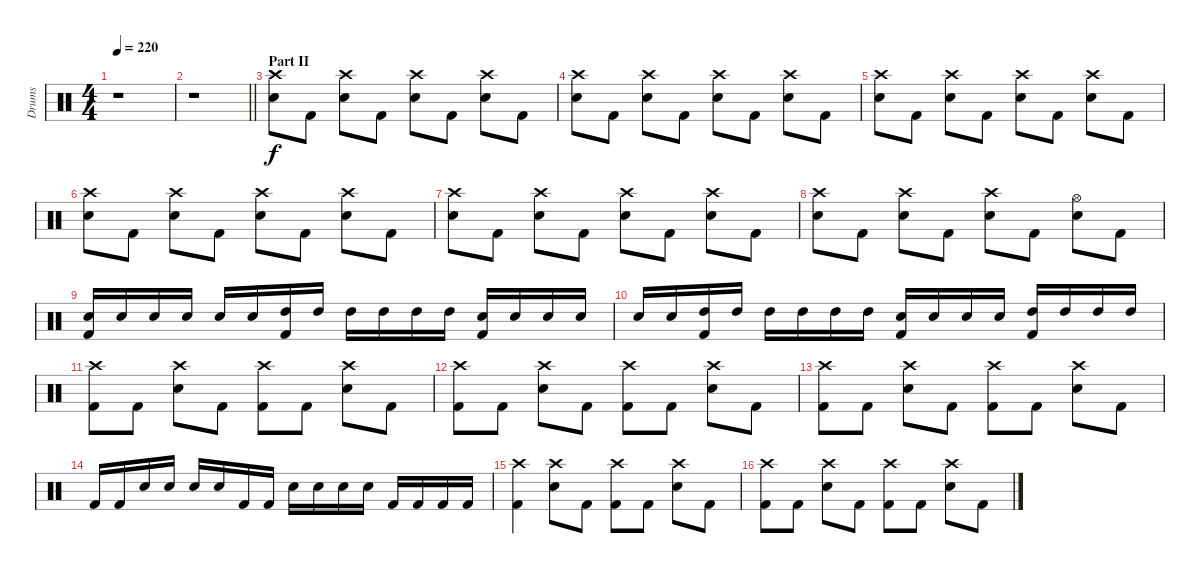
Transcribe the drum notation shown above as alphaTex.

\track ("Drums" "Drums") {instrument percussion}
\staff {score}
\articulation defaults
\ts (4 4)
\tempo 220
\clef neutral
\ks c
r.1{dy f} |
\barLineRight lightlight
r.1 |
\section ("" "Part II")
("Crash high (hit)" "Electric Snare (hit)").8 "Kick (hit) 2".8 ("Crash high (hit)" "Electric Snare (hit)").8 "Kick (hit) 2".8 ("Crash high (hit)" "Electric Snare (hit)").8 "Kick (hit) 2".8 ("Crash high (hit)" "Electric Snare (hit)").8 "Kick (hit) 2".8 |
("Crash high (hit)" "Electric Snare (hit)").8 "Kick (hit) 2".8 ("Crash high (hit)" "Electric Snare (hit)").8 "Kick (hit) 2".8 ("Crash high (hit)" "Electric Snare (hit)").8 "Kick (hit) 2".8 ("Crash high (hit)" "Electric Snare (hit)").8 "Kick (hit) 2".8 |
("Crash high (hit)" "Electric Snare (hit)").8 "Kick (hit) 2".8 ("Crash high (hit)" "Electric Snare (hit)").8 "Kick (hit) 2".8 ("Crash high (hit)" "Electric Snare (hit)").8 "Kick (hit) 2".8 ("Crash high (hit)" "Electric Snare (hit)").8 "Kick (hit) 2".8 |
("Crash high (hit)" "Electric Snare (hit)").8 "Kick (hit) 2".8 ("Crash high (hit)" "Electric Snare (hit)").8 "Kick (hit) 2".8 ("Crash high (hit)" "Electric Snare (hit)").8 "Kick (hit) 2".8 ("Crash high (hit)" "Electric Snare (hit)").8 "Kick (hit) 2".8 |
("Crash high (hit)" "Electric Snare (hit)").8 "Kick (hit) 2".8 ("Crash high (hit)" "Electric Snare (hit)").8 "Kick (hit) 2".8 ("Crash high (hit)" "Electric Snare (hit)").8 "Kick (hit) 2".8 ("Crash high (hit)" "Electric Snare (hit)").8 "Kick (hit) 2".8 |
("Crash high (hit)" "Electric Snare (hit)").8 "Kick (hit) 2".8 ("Crash high (hit)" "Electric Snare (hit)").8 "Kick (hit) 2".8 ("Crash high (hit)" "Electric Snare (hit)").8 "Kick (hit) 2".8 ("Hi-Hat (open)" "Electric Snare (hit)").8 "Kick (hit) 2".8 |
("Electric Snare (hit)" "Kick (hit) 2").16 "Electric Snare (hit)".16 "Electric Snare (hit)".16 "Electric Snare (hit)".16 "Electric Snare (hit)".16 "Electric Snare (hit)".16 ("High Tom (hit)" "Kick (hit) 2").16 "High Tom (hit)".16 "High Tom (hit)".16 "High Tom (hit)".16 "High Tom (hit)".16 "High Tom (hit)".16 ("Electric Snare (hit)" "Kick (hit) 2").16 "Electric Snare (hit)".16 "Electric Snare (hit)".16 "Electric Snare (hit)".16 |
"Electric Snare (hit)".16 "Electric Snare (hit)".16 ("High Tom (hit)" "Kick (hit) 2").16 "High Tom (hit)".16 "High Tom (hit)".16 "High Tom (hit)".16 "High Tom (hit)".16 "High Tom (hit)".16 ("Electric Snare (hit)" "Kick (hit) 2").16 "Electric Snare (hit)".16 "Electric Snare (hit)".16 "Electric Snare (hit)".16 ("High Tom (hit)" "Kick (hit) 2").16 "High Tom (hit)".16 "High Tom (hit)".16 "High Tom (hit)".16 |
("Crash high (hit)" "Kick (hit) 2").8 "Kick (hit) 2".8 ("Crash high (hit)" "Electric Snare (hit)").8 "Kick (hit) 2".8 ("Crash high (hit)" "Kick (hit) 2").8 "Kick (hit) 2".8 ("Crash high (hit)" "Electric Snare (hit)").8 "Kick (hit) 2".8 |
("Crash high (hit)" "Kick (hit) 2").8 "Kick (hit) 2".8 ("Crash high (hit)" "Electric Snare (hit)").8 "Kick (hit) 2".8 ("Crash high (hit)" "Kick (hit) 2").8 "Kick (hit) 2".8 ("Crash high (hit)" "Electric Snare (hit)").8 "Kick (hit) 2".8 |
("Crash high (hit)" "Kick (hit) 2").8 "Kick (hit) 2".8 ("Crash high (hit)" "Electric Snare (hit)").8 "Kick (hit) 2".8 ("Crash high (hit)" "Kick (hit) 2").8 "Kick (hit) 2".8 ("Crash high (hit)" "Electric Snare (hit)").8 "Kick (hit) 2".8 |
"Kick (hit) 2".16 "Kick (hit) 2".16 "Electric Snare (hit)".16 "Electric Snare (hit)".16 "Electric Snare (hit)".16 "Electric Snare (hit)".16 "Kick (hit) 2".16 "Kick (hit) 2".16 "Electric Snare (hit)".16 "Electric Snare (hit)".16 "Electric Snare (hit)".16 "Electric Snare (hit)".16 "Kick (hit) 2".16 "Kick (hit) 2".16 "Kick (hit) 2".16 "Kick (hit) 2".16 |
("Crash high (hit)" "Kick (hit) 2").4 ("Crash high (hit)" "Electric Snare (hit)").8 "Kick (hit) 2".8 ("Crash high (hit)" "Kick (hit) 2").8 "Kick (hit) 2".8 ("Crash high (hit)" "Electric Snare (hit)").8 "Kick (hit) 2".8 |
("Crash high (hit)" "Kick (hit) 2").8 "Kick (hit) 2".8 ("Crash high (hit)" "Electric Snare (hit)").8 "Kick (hit) 2".8 ("Crash high (hit)" "Kick (hit) 2").8 "Kick (hit) 2".8 ("Crash high (hit)" "Electric Snare (hit)").8 "Kick (hit) 2".8
